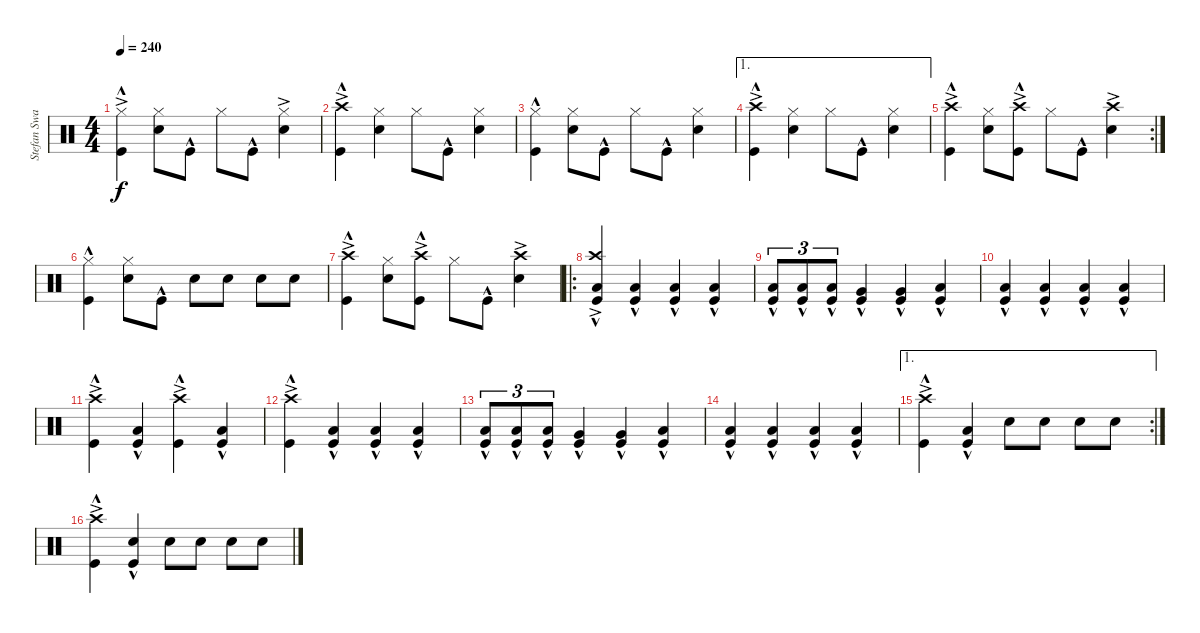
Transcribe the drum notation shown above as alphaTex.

\track ("Stefan Swarztmann" "Stefan Swa") {instrument percussion}
\staff {score}
\articulation defaults
\ts (4 4)
\tempo 240
\clef neutral
\ks c
("Hi-Hat (closed)"{ac} "Kick (hit)"{hac}).4{dy f} ("Hi-Hat (closed)" "Snare (hit) 2").8 "Kick (hit)"{hac}.8 "Hi-Hat (closed)".8 "Kick (hit)"{hac}.8 ("Hi-Hat (closed)"{ac} "Snare (hit) 2").4 |
("Crash high (hit)"{ac} "Kick (hit)"{hac}).4 ("Hi-Hat (closed)" "Snare (hit) 2").4 "Hi-Hat (closed)".8 "Kick (hit)"{hac}.8 ("Hi-Hat (closed)" "Snare (hit) 2").4 |
("Hi-Hat (closed)" "Kick (hit)"{hac}).4 ("Hi-Hat (closed)" "Snare (hit) 2").8 "Kick (hit)"{hac}.8 "Hi-Hat (closed)".8 "Kick (hit)"{hac}.8 ("Hi-Hat (closed)" "Snare (hit) 2").4 |
\ae 1
("Crash high (hit)"{ac} "Kick (hit)"{hac}).4 ("Hi-Hat (closed)" "Snare (hit) 2").4 "Hi-Hat (closed)".8 "Kick (hit)"{hac}.8 ("Hi-Hat (closed)" "Snare (hit) 2").4 |
\rc 2
("Crash high (hit)"{ac} "Kick (hit)"{hac}).4 ("Hi-Hat (closed)" "Snare (hit) 2").8 ("Crash high (hit)"{ac} "Kick (hit)"{hac}).8 "Hi-Hat (closed)".8 "Kick (hit)"{hac}.8 ("Crash high (hit)"{ac} "Snare (hit) 2").4 |
("Hi-Hat (closed)" "Kick (hit)"{hac}).4 ("Hi-Hat (closed)" "Snare (hit) 2").8 "Kick (hit)"{hac}.8 "Snare (hit) 2".8 "Snare (hit) 2".8 "Snare (hit) 2".8 "Snare (hit) 2".8 |
("Crash high (hit)"{ac} "Kick (hit)"{hac}).4 ("Hi-Hat (closed)" "Snare (hit) 2").8 ("Crash high (hit)"{ac} "Kick (hit)"{hac}).8 "Hi-Hat (closed)".8 "Kick (hit)"{hac}.8 ("Crash high (hit)"{ac} "Snare (hit) 2").4 |
\ro
("Crash high (hit)"{ac} "Low Floor Tom (hit)"{hac} "Kick (hit)"{hac}).4 ("Low Floor Tom (hit)"{hac} "Kick (hit)"{hac}).4 ("Low Floor Tom (hit)"{hac} "Kick (hit)"{hac}).4 ("Low Floor Tom (hit)"{hac} "Kick (hit)"{hac}).4 |
("Low Tom (hit)"{hac} "Kick (hit)"{hac}).8{tu (3 2)} ("Low Tom (hit)"{hac} "Kick (hit)"{hac}).8{tu (3 2)} ("Low Tom (hit)"{hac} "Kick (hit)"{hac}).8{tu (3 2)} ("Very Low Tom (hit)"{hac} "Kick (hit)"{hac}).4 ("Very Low Tom (hit)"{hac} "Kick (hit)"{hac}).4 ("Low Floor Tom (hit)"{hac} "Kick (hit)"{hac}).4 |
("Low Floor Tom (hit)"{hac} "Kick (hit)"{hac}).4 ("Low Floor Tom (hit)"{hac} "Kick (hit)"{hac}).4 ("Low Floor Tom (hit)"{hac} "Kick (hit)"{hac}).4 ("Low Floor Tom (hit)"{hac} "Kick (hit)"{hac}).4 |
("Crash high (hit)"{ac} "Kick (hit)"{hac}).4 ("Low Floor Tom (hit)"{hac} "Kick (hit)"{hac}).4 ("Crash high (hit)"{ac} "Kick (hit)"{hac}).4 ("Low Floor Tom (hit)"{hac} "Kick (hit)"{hac}).4 |
("Crash high (hit)"{ac} "Kick (hit)"{hac}).4 ("Low Floor Tom (hit)"{hac} "Kick (hit)"{hac}).4 ("Low Floor Tom (hit)"{hac} "Kick (hit)"{hac}).4 ("Low Floor Tom (hit)"{hac} "Kick (hit)"{hac}).4 |
("Low Tom (hit)"{hac} "Kick (hit)"{hac}).8{tu (3 2)} ("Low Tom (hit)"{hac} "Kick (hit)"{hac}).8{tu (3 2)} ("Low Tom (hit)"{hac} "Kick (hit)"{hac}).8{tu (3 2)} ("Very Low Tom (hit)"{hac} "Kick (hit)"{hac}).4 ("Very Low Tom (hit)"{hac} "Kick (hit)"{hac}).4 ("Low Floor Tom (hit)"{hac} "Kick (hit)"{hac}).4 |
("Low Floor Tom (hit)"{hac} "Kick (hit)"{hac}).4 ("Low Floor Tom (hit)"{hac} "Kick (hit)"{hac}).4 ("Low Floor Tom (hit)"{hac} "Kick (hit)"{hac}).4 ("Low Floor Tom (hit)"{hac} "Kick (hit)"{hac}).4 |
\ae 1
\rc 2
("Crash high (hit)"{ac} "Kick (hit)"{hac}).4 ("Low Floor Tom (hit)"{hac} "Kick (hit)"{hac}).4 "Snare (hit) 2".8 "Snare (hit) 2".8 "Snare (hit) 2".8 "Snare (hit) 2".8 |
("Crash high (hit)"{ac} "Kick (hit)"{hac}).4 ("Snare (hit) 2"{hac} "Kick (hit)"{hac}).4 "Snare (hit) 2".8 "Snare (hit) 2".8 "Snare (hit) 2".8 "Snare (hit) 2".8
